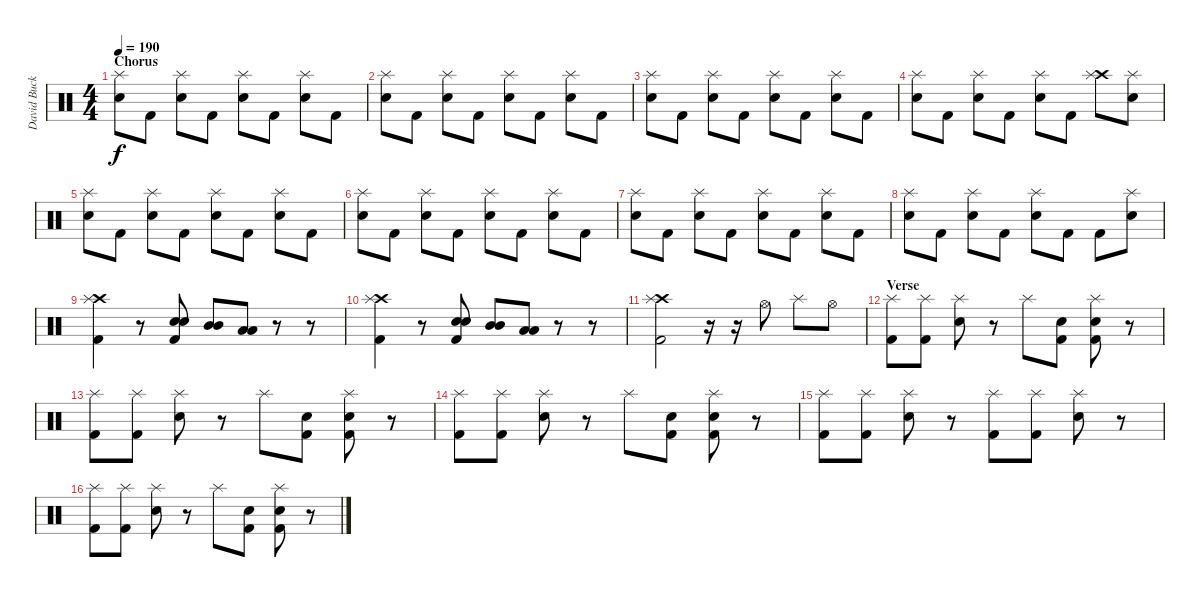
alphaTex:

\track ("David Buckner" "David Buck") {instrument percussion}
\staff {score}
\articulation defaults
\ts (4 4)
\section ("" "Chorus")
\tempo 190
\clef neutral
\ks c
("Splash (hit)" "Snare (hit) 2").8{dy f} "Kick (hit) 2".8 ("Splash (hit)" "Snare (hit) 2").8 "Kick (hit) 2".8 ("Splash (hit)" "Snare (hit) 2").8 "Kick (hit) 2".8 ("Splash (hit)" "Snare (hit) 2").8 "Kick (hit) 2".8 |
("Splash (hit)" "Snare (hit) 2").8 "Kick (hit) 2".8 ("Splash (hit)" "Snare (hit) 2").8 "Kick (hit) 2".8 ("Splash (hit)" "Snare (hit) 2").8 "Kick (hit) 2".8 ("Splash (hit)" "Snare (hit) 2").8 "Kick (hit) 2".8 |
("Splash (hit)" "Snare (hit) 2").8 "Kick (hit) 2".8 ("Splash (hit)" "Snare (hit) 2").8 "Kick (hit) 2".8 ("Splash (hit)" "Snare (hit) 2").8 "Kick (hit) 2".8 ("Splash (hit)" "Snare (hit) 2").8 "Kick (hit) 2".8 |
("Splash (hit)" "Snare (hit) 2").8 "Kick (hit) 2".8 ("Splash (hit)" "Snare (hit) 2").8 "Kick (hit) 2".8 ("Splash (hit)" "Snare (hit) 2").8 "Kick (hit) 2".8 ("Crash high (hit)" "Splash (hit)").8 ("Splash (hit)" "Snare (hit) 2").8 |
("Splash (hit)" "Snare (hit) 2").8 "Kick (hit) 2".8 ("Splash (hit)" "Snare (hit) 2").8 "Kick (hit) 2".8 ("Splash (hit)" "Snare (hit) 2").8 "Kick (hit) 2".8 ("Splash (hit)" "Snare (hit) 2").8 "Kick (hit) 2".8 |
("Splash (hit)" "Snare (hit) 2").8 "Kick (hit) 2".8 ("Splash (hit)" "Snare (hit) 2").8 "Kick (hit) 2".8 ("Splash (hit)" "Snare (hit) 2").8 "Kick (hit) 2".8 ("Splash (hit)" "Snare (hit) 2").8 "Kick (hit) 2".8 |
("Splash (hit)" "Snare (hit) 2").8 "Kick (hit) 2".8 ("Splash (hit)" "Snare (hit) 2").8 "Kick (hit) 2".8 ("Splash (hit)" "Snare (hit) 2").8 "Kick (hit) 2".8 ("Splash (hit)" "Snare (hit) 2").8 "Kick (hit) 2".8 |
("Splash (hit)" "Snare (hit) 2").8 "Kick (hit) 2".8 ("Splash (hit)" "Snare (hit) 2").8 "Kick (hit) 2".8 ("Splash (hit)" "Snare (hit) 2").8 "Kick (hit) 2".8 "Kick (hit) 2".8 ("Splash (hit)" "Snare (hit) 2").8 |
("Crash high (hit)" "Splash (hit)" "Kick (hit) 2").4 r.8 ("Snare (hit) 2" "Snare (hit) 2" "Kick (hit) 2").8 ("Mid Tom (hit)" "Mid Tom (hit)").8 ("Low Tom (hit)" "Low Tom (hit)").8 r.8 r.8 |
("Crash high (hit)" "Splash (hit)" "Kick (hit) 2").4 r.8 ("Snare (hit) 2" "Snare (hit) 2" "Kick (hit) 2").8 ("Mid Tom (hit)" "Mid Tom (hit)").8 ("Low Tom (hit)" "Low Tom (hit)").8 r.8 r.8 |
("Crash high (hit)" "Splash (hit)" "Kick (hit) 2").2 r.16 r.16 "Hi-Hat (open)".8 "Splash (hit)".8 "Hi-Hat (open)".8 |
\section ("" "Verse")
("Splash (hit)" "Kick (hit) 2").8 ("Splash (hit)" "Kick (hit) 2").8 ("Splash (hit)" "Snare (hit) 2").8 r.8 "Splash (hit)".8 ("Snare (hit) 2" "Kick (hit) 2").8 ("Splash (hit)" "Snare (hit) 2" "Kick (hit) 2").8 r.8 |
("Splash (hit)" "Kick (hit) 2").8 ("Splash (hit)" "Kick (hit) 2").8 ("Splash (hit)" "Snare (hit) 2").8 r.8 "Splash (hit)".8 ("Snare (hit) 2" "Kick (hit) 2").8 ("Splash (hit)" "Snare (hit) 2" "Kick (hit) 2").8 r.8 |
("Splash (hit)" "Kick (hit) 2").8 ("Splash (hit)" "Kick (hit) 2").8 ("Splash (hit)" "Snare (hit) 2").8 r.8 "Splash (hit)".8 ("Snare (hit) 2" "Kick (hit) 2").8 ("Splash (hit)" "Snare (hit) 2" "Kick (hit) 2").8 r.8 |
("Splash (hit)" "Kick (hit) 2").8 ("Splash (hit)" "Kick (hit) 2").8 ("Splash (hit)" "Snare (hit) 2").8 r.8 ("Splash (hit)" "Kick (hit) 2").8 ("Splash (hit)" "Kick (hit) 2").8 ("Splash (hit)" "Snare (hit) 2").8 r.8 |
("Splash (hit)" "Kick (hit) 2").8 ("Splash (hit)" "Kick (hit) 2").8 ("Splash (hit)" "Snare (hit) 2").8 r.8 "Splash (hit)".8 ("Snare (hit) 2" "Kick (hit) 2").8 ("Splash (hit)" "Snare (hit) 2" "Kick (hit) 2").8 r.8
